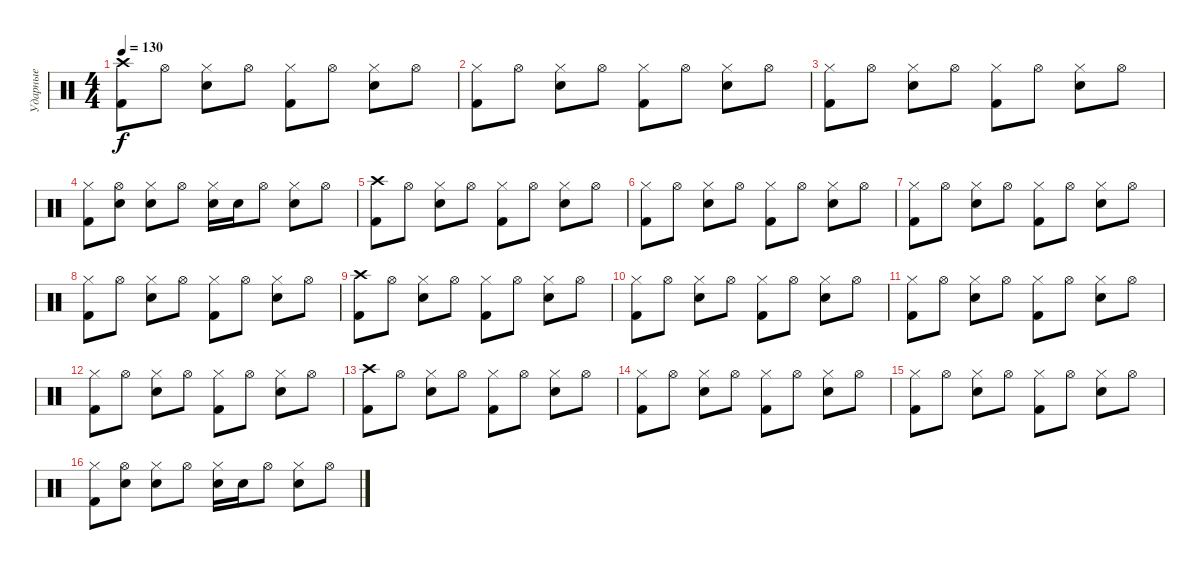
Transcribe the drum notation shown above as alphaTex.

\track ("Ударные" "Ударные") {instrument percussion}
\staff {score}
\articulation defaults
\ts (4 4)
\tempo 130
\clef neutral
\ks c
("Crash high (hit)" "Kick (hit) 2").8{dy f} "Hi-Hat (open)".8 ("Hi-Hat (closed)" "Snare (hit) 2").8 "Hi-Hat (open)".8 ("Hi-Hat (closed)" "Kick (hit) 2").8 "Hi-Hat (open)".8 ("Hi-Hat (closed)" "Snare (hit) 2").8 "Hi-Hat (open)".8 |
("Hi-Hat (closed)" "Kick (hit) 2").8 "Hi-Hat (open)".8 ("Hi-Hat (closed)" "Snare (hit) 2").8 "Hi-Hat (open)".8 ("Hi-Hat (closed)" "Kick (hit) 2").8 "Hi-Hat (open)".8 ("Hi-Hat (closed)" "Snare (hit) 2").8 "Hi-Hat (open)".8 |
("Hi-Hat (closed)" "Kick (hit) 2").8 "Hi-Hat (open)".8 ("Hi-Hat (closed)" "Snare (hit) 2").8 "Hi-Hat (open)".8 ("Hi-Hat (closed)" "Kick (hit) 2").8 "Hi-Hat (open)".8 ("Hi-Hat (closed)" "Snare (hit) 2").8 "Hi-Hat (open)".8 |
("Hi-Hat (closed)" "Kick (hit) 2").8 ("Hi-Hat (open)" "Snare (hit) 2").8 ("Hi-Hat (closed)" "Snare (hit) 2").8 "Hi-Hat (open)".8 ("Hi-Hat (closed)" "Snare (hit) 2").16 "Snare (hit) 2".16 "Hi-Hat (open)".8 ("Hi-Hat (closed)" "Snare (hit) 2").8 "Hi-Hat (open)".8 |
("Crash high (hit)" "Kick (hit) 2").8 "Hi-Hat (open)".8 ("Hi-Hat (closed)" "Snare (hit) 2").8 "Hi-Hat (open)".8 ("Hi-Hat (closed)" "Kick (hit) 2").8 "Hi-Hat (open)".8 ("Hi-Hat (closed)" "Snare (hit) 2").8 "Hi-Hat (open)".8 |
("Hi-Hat (closed)" "Kick (hit) 2").8 "Hi-Hat (open)".8 ("Hi-Hat (closed)" "Snare (hit) 2").8 "Hi-Hat (open)".8 ("Hi-Hat (closed)" "Kick (hit) 2").8 "Hi-Hat (open)".8 ("Hi-Hat (closed)" "Snare (hit) 2").8 "Hi-Hat (open)".8 |
("Hi-Hat (closed)" "Kick (hit) 2").8 "Hi-Hat (open)".8 ("Hi-Hat (closed)" "Snare (hit) 2").8 "Hi-Hat (open)".8 ("Hi-Hat (closed)" "Kick (hit) 2").8 "Hi-Hat (open)".8 ("Hi-Hat (closed)" "Snare (hit) 2").8 "Hi-Hat (open)".8 |
("Hi-Hat (closed)" "Kick (hit) 2").8 "Hi-Hat (open)".8 ("Hi-Hat (closed)" "Snare (hit) 2").8 "Hi-Hat (open)".8 ("Hi-Hat (closed)" "Kick (hit) 2").8 "Hi-Hat (open)".8 ("Hi-Hat (closed)" "Snare (hit) 2").8 "Hi-Hat (open)".8 |
("Crash high (hit)" "Kick (hit) 2").8 "Hi-Hat (open)".8 ("Hi-Hat (closed)" "Snare (hit) 2").8 "Hi-Hat (open)".8 ("Hi-Hat (closed)" "Kick (hit) 2").8 "Hi-Hat (open)".8 ("Hi-Hat (closed)" "Snare (hit) 2").8 "Hi-Hat (open)".8 |
("Hi-Hat (closed)" "Kick (hit) 2").8 "Hi-Hat (open)".8 ("Hi-Hat (closed)" "Snare (hit) 2").8 "Hi-Hat (open)".8 ("Hi-Hat (closed)" "Kick (hit) 2").8 "Hi-Hat (open)".8 ("Hi-Hat (closed)" "Snare (hit) 2").8 "Hi-Hat (open)".8 |
("Hi-Hat (closed)" "Kick (hit) 2").8 "Hi-Hat (open)".8 ("Hi-Hat (closed)" "Snare (hit) 2").8 "Hi-Hat (open)".8 ("Hi-Hat (closed)" "Kick (hit) 2").8 "Hi-Hat (open)".8 ("Hi-Hat (closed)" "Snare (hit) 2").8 "Hi-Hat (open)".8 |
("Hi-Hat (closed)" "Kick (hit) 2").8 "Hi-Hat (open)".8 ("Hi-Hat (closed)" "Snare (hit) 2").8 "Hi-Hat (open)".8 ("Hi-Hat (closed)" "Kick (hit) 2").8 "Hi-Hat (open)".8 ("Hi-Hat (closed)" "Snare (hit) 2").8 "Hi-Hat (open)".8 |
("Crash high (hit)" "Kick (hit) 2").8 "Hi-Hat (open)".8 ("Hi-Hat (closed)" "Snare (hit) 2").8 "Hi-Hat (open)".8 ("Hi-Hat (closed)" "Kick (hit) 2").8 "Hi-Hat (open)".8 ("Hi-Hat (closed)" "Snare (hit) 2").8 "Hi-Hat (open)".8 |
("Hi-Hat (closed)" "Kick (hit) 2").8 "Hi-Hat (open)".8 ("Hi-Hat (closed)" "Snare (hit) 2").8 "Hi-Hat (open)".8 ("Hi-Hat (closed)" "Kick (hit) 2").8 "Hi-Hat (open)".8 ("Hi-Hat (closed)" "Snare (hit) 2").8 "Hi-Hat (open)".8 |
("Hi-Hat (closed)" "Kick (hit) 2").8 "Hi-Hat (open)".8 ("Hi-Hat (closed)" "Snare (hit) 2").8 "Hi-Hat (open)".8 ("Hi-Hat (closed)" "Kick (hit) 2").8 "Hi-Hat (open)".8 ("Hi-Hat (closed)" "Snare (hit) 2").8 "Hi-Hat (open)".8 |
("Hi-Hat (closed)" "Kick (hit) 2").8 ("Hi-Hat (open)" "Snare (hit) 2").8 ("Hi-Hat (closed)" "Snare (hit) 2").8 "Hi-Hat (open)".8 ("Hi-Hat (closed)" "Snare (hit) 2").16 "Snare (hit) 2".16 "Hi-Hat (open)".8 ("Hi-Hat (closed)" "Snare (hit) 2").8 "Hi-Hat (open)".8
